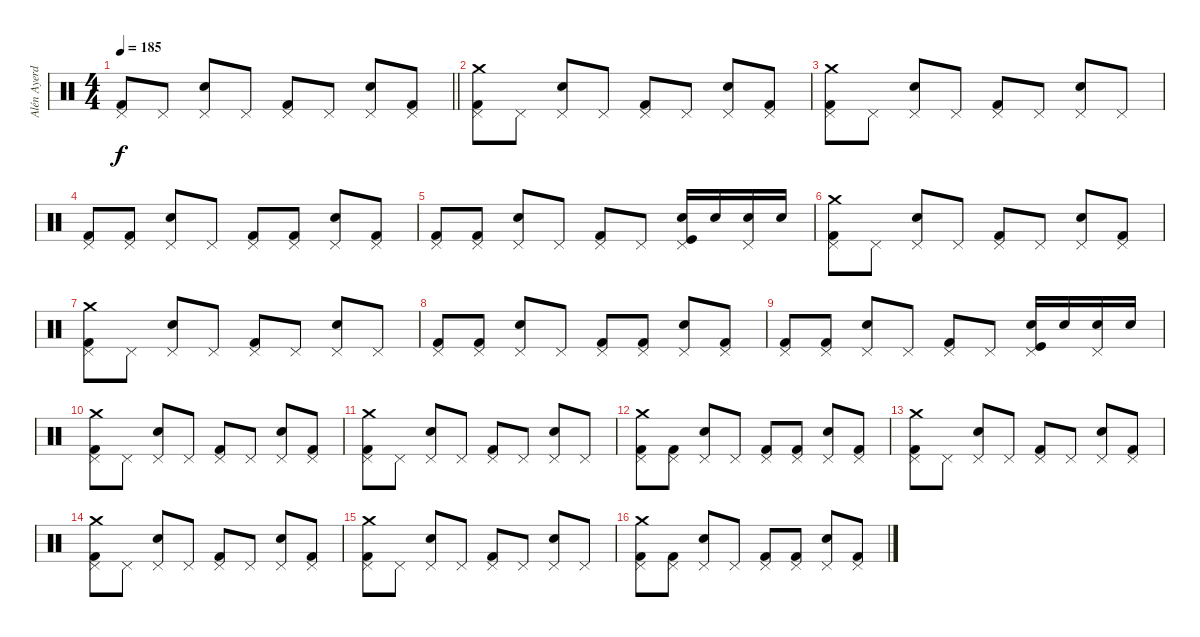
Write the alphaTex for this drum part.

\track ("Alén Ayerdi - Batería" "Alén Ayerd") {instrument percussion}
\staff {score}
\articulation defaults
\ts (4 4)
\tempo 185
\clef neutral
\barLineRight lightlight
\ks c
("Pedal Hi-Hat (hit)" "Kick (hit) 2").8{dy f} "Pedal Hi-Hat (hit)".8 ("Pedal Hi-Hat (hit)" "Electric Snare (hit)").8 "Pedal Hi-Hat (hit)".8 ("Pedal Hi-Hat (hit)" "Kick (hit) 2").8 "Pedal Hi-Hat (hit)".8 ("Pedal Hi-Hat (hit)" "Electric Snare (hit)").8 ("Pedal Hi-Hat (hit)" "Kick (hit) 2").8 |
("Crash medium (hit)" "Pedal Hi-Hat (hit)" "Kick (hit) 2").8 "Pedal Hi-Hat (hit)".8 ("Pedal Hi-Hat (hit)" "Electric Snare (hit)").8 "Pedal Hi-Hat (hit)".8 ("Pedal Hi-Hat (hit)" "Kick (hit) 2").8 "Pedal Hi-Hat (hit)".8 ("Pedal Hi-Hat (hit)" "Electric Snare (hit)").8 ("Pedal Hi-Hat (hit)" "Kick (hit) 2").8 |
("Crash medium (hit)" "Pedal Hi-Hat (hit)" "Kick (hit) 2").8 "Pedal Hi-Hat (hit)".8 ("Pedal Hi-Hat (hit)" "Electric Snare (hit)").8 "Pedal Hi-Hat (hit)".8 ("Pedal Hi-Hat (hit)" "Kick (hit) 2").8 "Pedal Hi-Hat (hit)".8 ("Pedal Hi-Hat (hit)" "Electric Snare (hit)").8 "Pedal Hi-Hat (hit)".8 |
("Pedal Hi-Hat (hit)" "Kick (hit) 2").8 ("Pedal Hi-Hat (hit)" "Kick (hit) 2").8 ("Pedal Hi-Hat (hit)" "Electric Snare (hit)").8 "Pedal Hi-Hat (hit)".8 ("Pedal Hi-Hat (hit)" "Kick (hit) 2").8 ("Pedal Hi-Hat (hit)" "Kick (hit) 2").8 ("Pedal Hi-Hat (hit)" "Electric Snare (hit)").8 ("Pedal Hi-Hat (hit)" "Kick (hit) 2").8 |
("Pedal Hi-Hat (hit)" "Kick (hit) 2").8 ("Pedal Hi-Hat (hit)" "Kick (hit) 2").8 ("Pedal Hi-Hat (hit)" "Electric Snare (hit)").8 "Pedal Hi-Hat (hit)".8 ("Pedal Hi-Hat (hit)" "Kick (hit) 2").8 "Pedal Hi-Hat (hit)".8 ("Pedal Hi-Hat (hit)" "Electric Snare (hit)" "Kick (hit)").16 "Electric Snare (hit)".16 ("Pedal Hi-Hat (hit)" "Electric Snare (hit)").16 "Electric Snare (hit)".16 |
("Crash medium (hit)" "Pedal Hi-Hat (hit)" "Kick (hit) 2").8 "Pedal Hi-Hat (hit)".8 ("Pedal Hi-Hat (hit)" "Electric Snare (hit)").8 "Pedal Hi-Hat (hit)".8 ("Pedal Hi-Hat (hit)" "Kick (hit) 2").8 "Pedal Hi-Hat (hit)".8 ("Pedal Hi-Hat (hit)" "Electric Snare (hit)").8 ("Pedal Hi-Hat (hit)" "Kick (hit) 2").8 |
("Crash medium (hit)" "Pedal Hi-Hat (hit)" "Kick (hit) 2").8 "Pedal Hi-Hat (hit)".8 ("Pedal Hi-Hat (hit)" "Electric Snare (hit)").8 "Pedal Hi-Hat (hit)".8 ("Pedal Hi-Hat (hit)" "Kick (hit) 2").8 "Pedal Hi-Hat (hit)".8 ("Pedal Hi-Hat (hit)" "Electric Snare (hit)").8 "Pedal Hi-Hat (hit)".8 |
("Pedal Hi-Hat (hit)" "Kick (hit) 2").8 ("Pedal Hi-Hat (hit)" "Kick (hit) 2").8 ("Pedal Hi-Hat (hit)" "Electric Snare (hit)").8 "Pedal Hi-Hat (hit)".8 ("Pedal Hi-Hat (hit)" "Kick (hit) 2").8 ("Pedal Hi-Hat (hit)" "Kick (hit) 2").8 ("Pedal Hi-Hat (hit)" "Electric Snare (hit)").8 ("Pedal Hi-Hat (hit)" "Kick (hit) 2").8 |
("Pedal Hi-Hat (hit)" "Kick (hit) 2").8 ("Pedal Hi-Hat (hit)" "Kick (hit) 2").8 ("Pedal Hi-Hat (hit)" "Electric Snare (hit)").8 "Pedal Hi-Hat (hit)".8 ("Pedal Hi-Hat (hit)" "Kick (hit) 2").8 "Pedal Hi-Hat (hit)".8 ("Pedal Hi-Hat (hit)" "Electric Snare (hit)" "Kick (hit)").16 "Electric Snare (hit)".16 ("Pedal Hi-Hat (hit)" "Electric Snare (hit)").16 "Electric Snare (hit)".16 |
("Crash medium (hit)" "Pedal Hi-Hat (hit)" "Kick (hit) 2").8 "Pedal Hi-Hat (hit)".8 ("Pedal Hi-Hat (hit)" "Electric Snare (hit)").8 "Pedal Hi-Hat (hit)".8 ("Pedal Hi-Hat (hit)" "Kick (hit) 2").8 "Pedal Hi-Hat (hit)".8 ("Pedal Hi-Hat (hit)" "Electric Snare (hit)").8 ("Pedal Hi-Hat (hit)" "Kick (hit) 2").8 |
("Crash medium (hit)" "Pedal Hi-Hat (hit)" "Kick (hit) 2").8 "Pedal Hi-Hat (hit)".8 ("Pedal Hi-Hat (hit)" "Electric Snare (hit)").8 "Pedal Hi-Hat (hit)".8 ("Pedal Hi-Hat (hit)" "Kick (hit) 2").8 "Pedal Hi-Hat (hit)".8 ("Pedal Hi-Hat (hit)" "Electric Snare (hit)").8 "Pedal Hi-Hat (hit)".8 |
("Crash medium (hit)" "Pedal Hi-Hat (hit)" "Kick (hit) 2").8 ("Pedal Hi-Hat (hit)" "Kick (hit) 2").8 ("Pedal Hi-Hat (hit)" "Electric Snare (hit)").8 "Pedal Hi-Hat (hit)".8 ("Pedal Hi-Hat (hit)" "Kick (hit) 2").8 ("Pedal Hi-Hat (hit)" "Kick (hit) 2").8 ("Pedal Hi-Hat (hit)" "Electric Snare (hit)").8 ("Pedal Hi-Hat (hit)" "Kick (hit) 2").8 |
("Crash medium (hit)" "Pedal Hi-Hat (hit)" "Kick (hit) 2").8 "Pedal Hi-Hat (hit)".8 ("Pedal Hi-Hat (hit)" "Electric Snare (hit)").8 "Pedal Hi-Hat (hit)".8 ("Pedal Hi-Hat (hit)" "Kick (hit) 2").8 "Pedal Hi-Hat (hit)".8 ("Pedal Hi-Hat (hit)" "Electric Snare (hit)").8 ("Pedal Hi-Hat (hit)" "Kick (hit) 2").8 |
("Crash medium (hit)" "Pedal Hi-Hat (hit)" "Kick (hit) 2").8 "Pedal Hi-Hat (hit)".8 ("Pedal Hi-Hat (hit)" "Electric Snare (hit)").8 "Pedal Hi-Hat (hit)".8 ("Pedal Hi-Hat (hit)" "Kick (hit) 2").8 "Pedal Hi-Hat (hit)".8 ("Pedal Hi-Hat (hit)" "Electric Snare (hit)").8 ("Pedal Hi-Hat (hit)" "Kick (hit) 2").8 |
("Crash medium (hit)" "Pedal Hi-Hat (hit)" "Kick (hit) 2").8 "Pedal Hi-Hat (hit)".8 ("Pedal Hi-Hat (hit)" "Electric Snare (hit)").8 "Pedal Hi-Hat (hit)".8 ("Pedal Hi-Hat (hit)" "Kick (hit) 2").8 "Pedal Hi-Hat (hit)".8 ("Pedal Hi-Hat (hit)" "Electric Snare (hit)").8 "Pedal Hi-Hat (hit)".8 |
("Crash medium (hit)" "Pedal Hi-Hat (hit)" "Kick (hit) 2").8 ("Pedal Hi-Hat (hit)" "Kick (hit) 2").8 ("Pedal Hi-Hat (hit)" "Electric Snare (hit)").8 "Pedal Hi-Hat (hit)".8 ("Pedal Hi-Hat (hit)" "Kick (hit) 2").8 ("Pedal Hi-Hat (hit)" "Kick (hit) 2").8 ("Pedal Hi-Hat (hit)" "Electric Snare (hit)").8 ("Pedal Hi-Hat (hit)" "Kick (hit) 2").8
